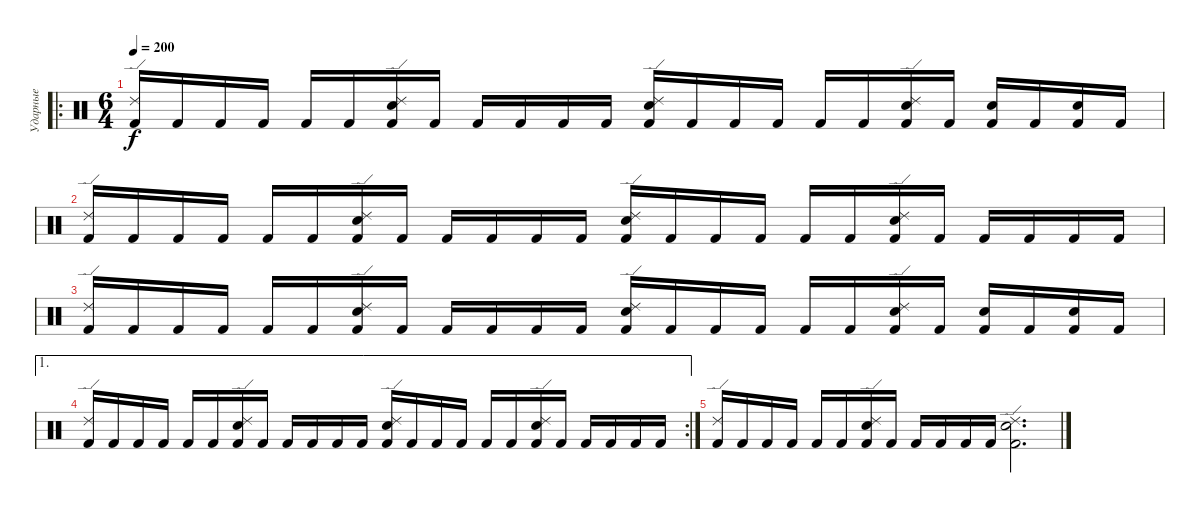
\track ("Ударные" "Ударные") {instrument percussion}
\staff {score}
\articulation defaults
\ro
\ts (6 4)
\tempo 200
\clef neutral
\ks c
("Ride (edge) 2" "Kick (hit) 2").16{dy f} "Kick (hit) 2".16 "Kick (hit) 2".16 "Kick (hit) 2".16 "Kick (hit) 2".16 "Kick (hit) 2".16 ("Ride (edge) 2" "Electric Snare (hit)" "Kick (hit) 2").16 "Kick (hit) 2".16 "Kick (hit) 2".16 "Kick (hit) 2".16 "Kick (hit) 2".16 "Kick (hit) 2".16 ("Ride (edge) 2" "Electric Snare (hit)" "Kick (hit) 2").16 "Kick (hit) 2".16 "Kick (hit) 2".16 "Kick (hit) 2".16 "Kick (hit) 2".16 "Kick (hit) 2".16 ("Ride (edge) 2" "Electric Snare (hit)" "Kick (hit) 2").16 "Kick (hit) 2".16 ("Electric Snare (hit)" "Kick (hit) 2").16 "Kick (hit) 2".16 ("Electric Snare (hit)" "Kick (hit) 2").16 "Kick (hit) 2".16 |
("Ride (edge) 2" "Kick (hit) 2").16 "Kick (hit) 2".16 "Kick (hit) 2".16 "Kick (hit) 2".16 "Kick (hit) 2".16 "Kick (hit) 2".16 ("Ride (edge) 2" "Electric Snare (hit)" "Kick (hit) 2").16 "Kick (hit) 2".16 "Kick (hit) 2".16 "Kick (hit) 2".16 "Kick (hit) 2".16 "Kick (hit) 2".16 ("Ride (edge) 2" "Electric Snare (hit)" "Kick (hit) 2").16 "Kick (hit) 2".16 "Kick (hit) 2".16 "Kick (hit) 2".16 "Kick (hit) 2".16 "Kick (hit) 2".16 ("Ride (edge) 2" "Electric Snare (hit)" "Kick (hit) 2").16 "Kick (hit) 2".16 "Kick (hit) 2".16 "Kick (hit) 2".16 "Kick (hit) 2".16 "Kick (hit) 2".16 |
("Ride (edge) 2" "Kick (hit) 2").16 "Kick (hit) 2".16 "Kick (hit) 2".16 "Kick (hit) 2".16 "Kick (hit) 2".16 "Kick (hit) 2".16 ("Ride (edge) 2" "Electric Snare (hit)" "Kick (hit) 2").16 "Kick (hit) 2".16 "Kick (hit) 2".16 "Kick (hit) 2".16 "Kick (hit) 2".16 "Kick (hit) 2".16 ("Ride (edge) 2" "Electric Snare (hit)" "Kick (hit) 2").16 "Kick (hit) 2".16 "Kick (hit) 2".16 "Kick (hit) 2".16 "Kick (hit) 2".16 "Kick (hit) 2".16 ("Ride (edge) 2" "Electric Snare (hit)" "Kick (hit) 2").16 "Kick (hit) 2".16 ("Electric Snare (hit)" "Kick (hit) 2").16 "Kick (hit) 2".16 ("Electric Snare (hit)" "Kick (hit) 2").16 "Kick (hit) 2".16 |
\ae 1
\rc 2
("Ride (edge) 2" "Kick (hit) 2").16 "Kick (hit) 2".16 "Kick (hit) 2".16 "Kick (hit) 2".16 "Kick (hit) 2".16 "Kick (hit) 2".16 ("Ride (edge) 2" "Electric Snare (hit)" "Kick (hit) 2").16 "Kick (hit) 2".16 "Kick (hit) 2".16 "Kick (hit) 2".16 "Kick (hit) 2".16 "Kick (hit) 2".16 ("Ride (edge) 2" "Electric Snare (hit)" "Kick (hit) 2").16 "Kick (hit) 2".16 "Kick (hit) 2".16 "Kick (hit) 2".16 "Kick (hit) 2".16 "Kick (hit) 2".16 ("Ride (edge) 2" "Electric Snare (hit)" "Kick (hit) 2").16 "Kick (hit) 2".16 "Kick (hit) 2".16 "Kick (hit) 2".16 "Kick (hit) 2".16 "Kick (hit) 2".16 |
("Ride (edge) 2" "Kick (hit) 2").16 "Kick (hit) 2".16 "Kick (hit) 2".16 "Kick (hit) 2".16 "Kick (hit) 2".16 "Kick (hit) 2".16 ("Ride (edge) 2" "Electric Snare (hit)" "Kick (hit) 2").16 "Kick (hit) 2".16 "Kick (hit) 2".16 "Kick (hit) 2".16 "Kick (hit) 2".16 "Kick (hit) 2".16 ("Ride (edge) 2" "Electric Snare (hit)" "Kick (hit) 2").2{d}
